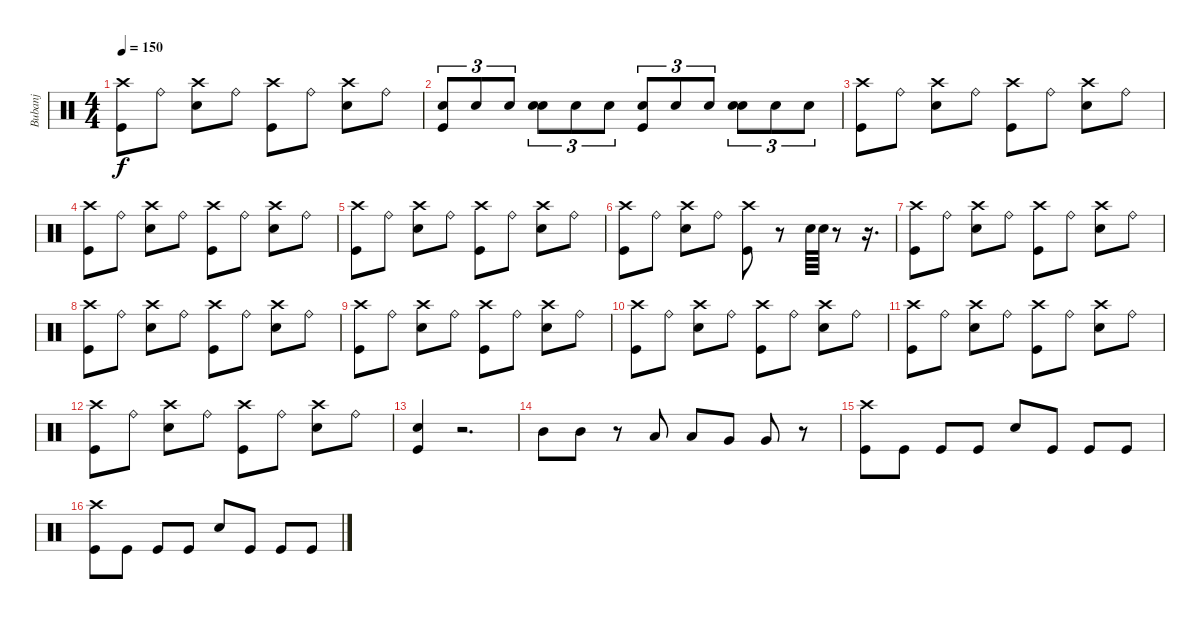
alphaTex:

\track ("Bubanj" "Bubanj") {instrument percussion}
\staff {score}
\articulation defaults
\ts (4 4)
\tempo 150
\clef neutral
\ks c
("Crash high (hit)" "Kick (hit)").8{dy f} "Ride (bell)".8 ("Crash high (hit)" "Electric Snare (hit)").8 "Ride (bell)".8 ("Crash high (hit)" "Kick (hit)").8 "Ride (bell)".8 ("Crash high (hit)" "Electric Snare (hit)").8 "Ride (bell)".8 |
("Electric Snare (hit)" "Kick (hit)").8{tu (3 2)} "Electric Snare (hit)".8{tu (3 2)} "Electric Snare (hit)".8{tu (3 2)} ("Electric Snare (hit)" "Electric Snare (hit)").8{tu (3 2)} "Electric Snare (hit)".8{tu (3 2)} "Electric Snare (hit)".8{tu (3 2)} ("Electric Snare (hit)" "Kick (hit)").8{tu (3 2)} "Electric Snare (hit)".8{tu (3 2)} "Electric Snare (hit)".8{tu (3 2)} ("Electric Snare (hit)" "Electric Snare (hit)").8{tu (3 2)} "Electric Snare (hit)".8{tu (3 2)} "Electric Snare (hit)".8{tu (3 2)} |
("Crash high (hit)" "Kick (hit)").8 "Ride (bell)".8 ("Crash high (hit)" "Electric Snare (hit)").8 "Ride (bell)".8 ("Crash high (hit)" "Kick (hit)").8 "Ride (bell)".8 ("Crash high (hit)" "Electric Snare (hit)").8 "Ride (bell)".8 |
("Crash high (hit)" "Kick (hit)").8 "Ride (bell)".8 ("Crash high (hit)" "Electric Snare (hit)").8 "Ride (bell)".8 ("Crash high (hit)" "Kick (hit)").8 "Ride (bell)".8 ("Crash high (hit)" "Electric Snare (hit)").8 "Ride (bell)".8 |
("Crash high (hit)" "Kick (hit)").8 "Ride (bell)".8 ("Crash high (hit)" "Electric Snare (hit)").8 "Ride (bell)".8 ("Crash high (hit)" "Kick (hit)").8 "Ride (bell)".8 ("Crash high (hit)" "Electric Snare (hit)").8 "Ride (bell)".8 |
("Crash high (hit)" "Kick (hit)").8 "Ride (bell)".8 ("Crash high (hit)" "Electric Snare (hit)").8 "Ride (bell)".8 ("Crash high (hit)" "Kick (hit)").8 r.8 "Electric Snare (hit)".64 "Electric Snare (hit)".64 r.8 r.16{d} |
("Crash high (hit)" "Kick (hit)").8 "Ride (bell)".8 ("Crash high (hit)" "Electric Snare (hit)").8 "Ride (bell)".8 ("Crash high (hit)" "Kick (hit)").8 "Ride (bell)".8 ("Crash high (hit)" "Electric Snare (hit)").8 "Ride (bell)".8 |
("Crash high (hit)" "Kick (hit)").8 "Ride (bell)".8 ("Crash high (hit)" "Electric Snare (hit)").8 "Ride (bell)".8 ("Crash high (hit)" "Kick (hit)").8 "Ride (bell)".8 ("Crash high (hit)" "Electric Snare (hit)").8 "Ride (bell)".8 |
("Crash high (hit)" "Kick (hit)").8 "Ride (bell)".8 ("Crash high (hit)" "Electric Snare (hit)").8 "Ride (bell)".8 ("Crash high (hit)" "Kick (hit)").8 "Ride (bell)".8 ("Crash high (hit)" "Electric Snare (hit)").8 "Ride (bell)".8 |
("Crash high (hit)" "Kick (hit)").8 "Ride (bell)".8 ("Crash high (hit)" "Electric Snare (hit)").8 "Ride (bell)".8 ("Crash high (hit)" "Kick (hit)").8 "Ride (bell)".8 ("Crash high (hit)" "Electric Snare (hit)").8 "Ride (bell)".8 |
("Crash high (hit)" "Kick (hit)").8 "Ride (bell)".8 ("Crash high (hit)" "Electric Snare (hit)").8 "Ride (bell)".8 ("Crash high (hit)" "Kick (hit)").8 "Ride (bell)".8 ("Crash high (hit)" "Electric Snare (hit)").8 "Ride (bell)".8 |
("Crash high (hit)" "Kick (hit)").8 "Ride (bell)".8 ("Crash high (hit)" "Electric Snare (hit)").8 "Ride (bell)".8 ("Crash high (hit)" "Kick (hit)").8 "Ride (bell)".8 ("Crash high (hit)" "Electric Snare (hit)").8 "Ride (bell)".8 |
("Electric Snare (hit)" "Kick (hit)").4 r.2{d} |
"Mid Tom (hit)".8 "Mid Tom (hit)".8 r.8 "Low Tom (hit)".8 "Low Tom (hit)".8 "Very Low Tom (hit)".8 "Very Low Tom (hit)".8 r.8 |
("Crash high (hit)" "Kick (hit)").8 "Kick (hit)".8 "Kick (hit)".8 "Kick (hit)".8 "Electric Snare (hit)".8 "Kick (hit)".8 "Kick (hit)".8 "Kick (hit)".8 |
("Crash high (hit)" "Kick (hit)").8 "Kick (hit)".8 "Kick (hit)".8 "Kick (hit)".8 "Electric Snare (hit)".8 "Kick (hit)".8 "Kick (hit)".8 "Kick (hit)".8
